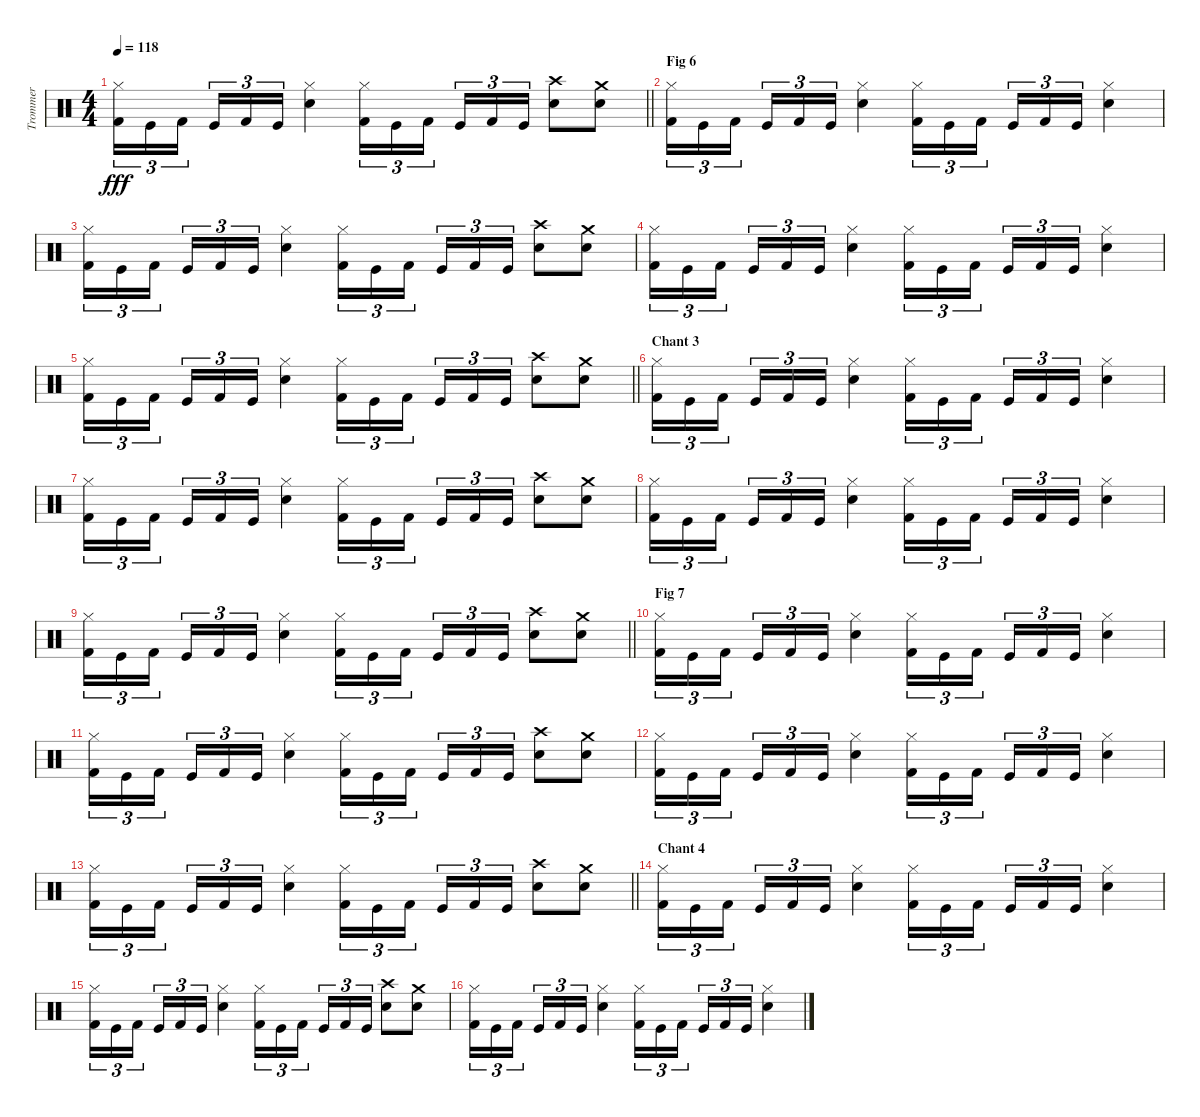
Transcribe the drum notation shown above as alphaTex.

\track ("Trommer" "Trommer") {instrument percussion}
\staff {score}
\articulation defaults
\ts (4 4)
\tempo 118
\clef neutral
\barLineRight lightlight
\ks c
("Hi-Hat (closed)" "Kick (hit) 2").16{tu (3 2) dy fff} "Kick (hit)".16{tu (3 2)} "Kick (hit) 2".16{tu (3 2) beam splitsecondary} "Kick (hit)".16{tu (3 2)} "Kick (hit) 2".16{tu (3 2)} "Kick (hit)".16{tu (3 2)} ("Hi-Hat (closed)" "Electric Snare (hit)").4 ("Hi-Hat (closed)" "Kick (hit) 2").16{tu (3 2)} "Kick (hit)".16{tu (3 2)} "Kick (hit) 2".16{tu (3 2) beam splitsecondary} "Kick (hit)".16{tu (3 2)} "Kick (hit) 2".16{tu (3 2)} "Kick (hit)".16{tu (3 2)} ("Crash high (hit)" "Electric Snare (hit)").8 ("Crash medium (hit)" "Electric Snare (hit)").8 |
\section ("" "Fig 6")
("Hi-Hat (closed)" "Kick (hit) 2").16{tu (3 2)} "Kick (hit)".16{tu (3 2)} "Kick (hit) 2".16{tu (3 2) beam splitsecondary} "Kick (hit)".16{tu (3 2)} "Kick (hit) 2".16{tu (3 2)} "Kick (hit)".16{tu (3 2)} ("Hi-Hat (closed)" "Electric Snare (hit)").4 ("Hi-Hat (closed)" "Kick (hit) 2").16{tu (3 2)} "Kick (hit)".16{tu (3 2)} "Kick (hit) 2".16{tu (3 2) beam splitsecondary} "Kick (hit)".16{tu (3 2)} "Kick (hit) 2".16{tu (3 2)} "Kick (hit)".16{tu (3 2)} ("Hi-Hat (closed)" "Electric Snare (hit)").4 |
("Hi-Hat (closed)" "Kick (hit) 2").16{tu (3 2)} "Kick (hit)".16{tu (3 2)} "Kick (hit) 2".16{tu (3 2) beam splitsecondary} "Kick (hit)".16{tu (3 2)} "Kick (hit) 2".16{tu (3 2)} "Kick (hit)".16{tu (3 2)} ("Hi-Hat (closed)" "Electric Snare (hit)").4 ("Hi-Hat (closed)" "Kick (hit) 2").16{tu (3 2)} "Kick (hit)".16{tu (3 2)} "Kick (hit) 2".16{tu (3 2) beam splitsecondary} "Kick (hit)".16{tu (3 2)} "Kick (hit) 2".16{tu (3 2)} "Kick (hit)".16{tu (3 2)} ("Crash high (hit)" "Electric Snare (hit)").8 ("Crash medium (hit)" "Electric Snare (hit)").8 |
("Hi-Hat (closed)" "Kick (hit) 2").16{tu (3 2)} "Kick (hit)".16{tu (3 2)} "Kick (hit) 2".16{tu (3 2) beam splitsecondary} "Kick (hit)".16{tu (3 2)} "Kick (hit) 2".16{tu (3 2)} "Kick (hit)".16{tu (3 2)} ("Hi-Hat (closed)" "Electric Snare (hit)").4 ("Hi-Hat (closed)" "Kick (hit) 2").16{tu (3 2)} "Kick (hit)".16{tu (3 2)} "Kick (hit) 2".16{tu (3 2) beam splitsecondary} "Kick (hit)".16{tu (3 2)} "Kick (hit) 2".16{tu (3 2)} "Kick (hit)".16{tu (3 2)} ("Hi-Hat (closed)" "Electric Snare (hit)").4 |
\barLineRight lightlight
("Hi-Hat (closed)" "Kick (hit) 2").16{tu (3 2)} "Kick (hit)".16{tu (3 2)} "Kick (hit) 2".16{tu (3 2) beam splitsecondary} "Kick (hit)".16{tu (3 2)} "Kick (hit) 2".16{tu (3 2)} "Kick (hit)".16{tu (3 2)} ("Hi-Hat (closed)" "Electric Snare (hit)").4 ("Hi-Hat (closed)" "Kick (hit) 2").16{tu (3 2)} "Kick (hit)".16{tu (3 2)} "Kick (hit) 2".16{tu (3 2) beam splitsecondary} "Kick (hit)".16{tu (3 2)} "Kick (hit) 2".16{tu (3 2)} "Kick (hit)".16{tu (3 2)} ("Crash high (hit)" "Electric Snare (hit)").8 ("Crash medium (hit)" "Electric Snare (hit)").8 |
\section ("" "Chant 3")
("Hi-Hat (closed)" "Kick (hit) 2").16{tu (3 2)} "Kick (hit)".16{tu (3 2)} "Kick (hit) 2".16{tu (3 2) beam splitsecondary} "Kick (hit)".16{tu (3 2)} "Kick (hit) 2".16{tu (3 2)} "Kick (hit)".16{tu (3 2)} ("Hi-Hat (closed)" "Electric Snare (hit)").4 ("Hi-Hat (closed)" "Kick (hit) 2").16{tu (3 2)} "Kick (hit)".16{tu (3 2)} "Kick (hit) 2".16{tu (3 2) beam splitsecondary} "Kick (hit)".16{tu (3 2)} "Kick (hit) 2".16{tu (3 2)} "Kick (hit)".16{tu (3 2)} ("Hi-Hat (closed)" "Electric Snare (hit)").4 |
("Hi-Hat (closed)" "Kick (hit) 2").16{tu (3 2)} "Kick (hit)".16{tu (3 2)} "Kick (hit) 2".16{tu (3 2) beam splitsecondary} "Kick (hit)".16{tu (3 2)} "Kick (hit) 2".16{tu (3 2)} "Kick (hit)".16{tu (3 2)} ("Hi-Hat (closed)" "Electric Snare (hit)").4 ("Hi-Hat (closed)" "Kick (hit) 2").16{tu (3 2)} "Kick (hit)".16{tu (3 2)} "Kick (hit) 2".16{tu (3 2) beam splitsecondary} "Kick (hit)".16{tu (3 2)} "Kick (hit) 2".16{tu (3 2)} "Kick (hit)".16{tu (3 2)} ("Crash high (hit)" "Electric Snare (hit)").8 ("Crash medium (hit)" "Electric Snare (hit)").8 |
("Hi-Hat (closed)" "Kick (hit) 2").16{tu (3 2)} "Kick (hit)".16{tu (3 2)} "Kick (hit) 2".16{tu (3 2) beam splitsecondary} "Kick (hit)".16{tu (3 2)} "Kick (hit) 2".16{tu (3 2)} "Kick (hit)".16{tu (3 2)} ("Hi-Hat (closed)" "Electric Snare (hit)").4 ("Hi-Hat (closed)" "Kick (hit) 2").16{tu (3 2)} "Kick (hit)".16{tu (3 2)} "Kick (hit) 2".16{tu (3 2) beam splitsecondary} "Kick (hit)".16{tu (3 2)} "Kick (hit) 2".16{tu (3 2)} "Kick (hit)".16{tu (3 2)} ("Hi-Hat (closed)" "Electric Snare (hit)").4 |
\barLineRight lightlight
("Hi-Hat (closed)" "Kick (hit) 2").16{tu (3 2)} "Kick (hit)".16{tu (3 2)} "Kick (hit) 2".16{tu (3 2) beam splitsecondary} "Kick (hit)".16{tu (3 2)} "Kick (hit) 2".16{tu (3 2)} "Kick (hit)".16{tu (3 2)} ("Hi-Hat (closed)" "Electric Snare (hit)").4 ("Hi-Hat (closed)" "Kick (hit) 2").16{tu (3 2)} "Kick (hit)".16{tu (3 2)} "Kick (hit) 2".16{tu (3 2) beam splitsecondary} "Kick (hit)".16{tu (3 2)} "Kick (hit) 2".16{tu (3 2)} "Kick (hit)".16{tu (3 2)} ("Crash high (hit)" "Electric Snare (hit)").8 ("Crash medium (hit)" "Electric Snare (hit)").8 |
\section ("" "Fig 7")
("Hi-Hat (closed)" "Kick (hit) 2").16{tu (3 2)} "Kick (hit)".16{tu (3 2)} "Kick (hit) 2".16{tu (3 2) beam splitsecondary} "Kick (hit)".16{tu (3 2)} "Kick (hit) 2".16{tu (3 2)} "Kick (hit)".16{tu (3 2)} ("Hi-Hat (closed)" "Electric Snare (hit)").4 ("Hi-Hat (closed)" "Kick (hit) 2").16{tu (3 2)} "Kick (hit)".16{tu (3 2)} "Kick (hit) 2".16{tu (3 2) beam splitsecondary} "Kick (hit)".16{tu (3 2)} "Kick (hit) 2".16{tu (3 2)} "Kick (hit)".16{tu (3 2)} ("Hi-Hat (closed)" "Electric Snare (hit)").4 |
("Hi-Hat (closed)" "Kick (hit) 2").16{tu (3 2)} "Kick (hit)".16{tu (3 2)} "Kick (hit) 2".16{tu (3 2) beam splitsecondary} "Kick (hit)".16{tu (3 2)} "Kick (hit) 2".16{tu (3 2)} "Kick (hit)".16{tu (3 2)} ("Hi-Hat (closed)" "Electric Snare (hit)").4 ("Hi-Hat (closed)" "Kick (hit) 2").16{tu (3 2)} "Kick (hit)".16{tu (3 2)} "Kick (hit) 2".16{tu (3 2) beam splitsecondary} "Kick (hit)".16{tu (3 2)} "Kick (hit) 2".16{tu (3 2)} "Kick (hit)".16{tu (3 2)} ("Crash high (hit)" "Electric Snare (hit)").8 ("Crash medium (hit)" "Electric Snare (hit)").8 |
("Hi-Hat (closed)" "Kick (hit) 2").16{tu (3 2)} "Kick (hit)".16{tu (3 2)} "Kick (hit) 2".16{tu (3 2) beam splitsecondary} "Kick (hit)".16{tu (3 2)} "Kick (hit) 2".16{tu (3 2)} "Kick (hit)".16{tu (3 2)} ("Hi-Hat (closed)" "Electric Snare (hit)").4 ("Hi-Hat (closed)" "Kick (hit) 2").16{tu (3 2)} "Kick (hit)".16{tu (3 2)} "Kick (hit) 2".16{tu (3 2) beam splitsecondary} "Kick (hit)".16{tu (3 2)} "Kick (hit) 2".16{tu (3 2)} "Kick (hit)".16{tu (3 2)} ("Hi-Hat (closed)" "Electric Snare (hit)").4 |
\barLineRight lightlight
("Hi-Hat (closed)" "Kick (hit) 2").16{tu (3 2)} "Kick (hit)".16{tu (3 2)} "Kick (hit) 2".16{tu (3 2) beam splitsecondary} "Kick (hit)".16{tu (3 2)} "Kick (hit) 2".16{tu (3 2)} "Kick (hit)".16{tu (3 2)} ("Hi-Hat (closed)" "Electric Snare (hit)").4 ("Hi-Hat (closed)" "Kick (hit) 2").16{tu (3 2)} "Kick (hit)".16{tu (3 2)} "Kick (hit) 2".16{tu (3 2) beam splitsecondary} "Kick (hit)".16{tu (3 2)} "Kick (hit) 2".16{tu (3 2)} "Kick (hit)".16{tu (3 2)} ("Crash high (hit)" "Electric Snare (hit)").8 ("Crash medium (hit)" "Electric Snare (hit)").8 |
\section ("" "Chant 4")
("Hi-Hat (closed)" "Kick (hit) 2").16{tu (3 2)} "Kick (hit)".16{tu (3 2)} "Kick (hit) 2".16{tu (3 2) beam splitsecondary} "Kick (hit)".16{tu (3 2)} "Kick (hit) 2".16{tu (3 2)} "Kick (hit)".16{tu (3 2)} ("Hi-Hat (closed)" "Electric Snare (hit)").4 ("Hi-Hat (closed)" "Kick (hit) 2").16{tu (3 2)} "Kick (hit)".16{tu (3 2)} "Kick (hit) 2".16{tu (3 2) beam splitsecondary} "Kick (hit)".16{tu (3 2)} "Kick (hit) 2".16{tu (3 2)} "Kick (hit)".16{tu (3 2)} ("Hi-Hat (closed)" "Electric Snare (hit)").4 |
("Hi-Hat (closed)" "Kick (hit) 2").16{tu (3 2)} "Kick (hit)".16{tu (3 2)} "Kick (hit) 2".16{tu (3 2) beam splitsecondary} "Kick (hit)".16{tu (3 2)} "Kick (hit) 2".16{tu (3 2)} "Kick (hit)".16{tu (3 2)} ("Hi-Hat (closed)" "Electric Snare (hit)").4 ("Hi-Hat (closed)" "Kick (hit) 2").16{tu (3 2)} "Kick (hit)".16{tu (3 2)} "Kick (hit) 2".16{tu (3 2) beam splitsecondary} "Kick (hit)".16{tu (3 2)} "Kick (hit) 2".16{tu (3 2)} "Kick (hit)".16{tu (3 2)} ("Crash high (hit)" "Electric Snare (hit)").8 ("Crash medium (hit)" "Electric Snare (hit)").8 |
("Hi-Hat (closed)" "Kick (hit) 2").16{tu (3 2)} "Kick (hit)".16{tu (3 2)} "Kick (hit) 2".16{tu (3 2) beam splitsecondary} "Kick (hit)".16{tu (3 2)} "Kick (hit) 2".16{tu (3 2)} "Kick (hit)".16{tu (3 2)} ("Hi-Hat (closed)" "Electric Snare (hit)").4 ("Hi-Hat (closed)" "Kick (hit) 2").16{tu (3 2)} "Kick (hit)".16{tu (3 2)} "Kick (hit) 2".16{tu (3 2) beam splitsecondary} "Kick (hit)".16{tu (3 2)} "Kick (hit) 2".16{tu (3 2)} "Kick (hit)".16{tu (3 2)} ("Hi-Hat (closed)" "Electric Snare (hit)").4
